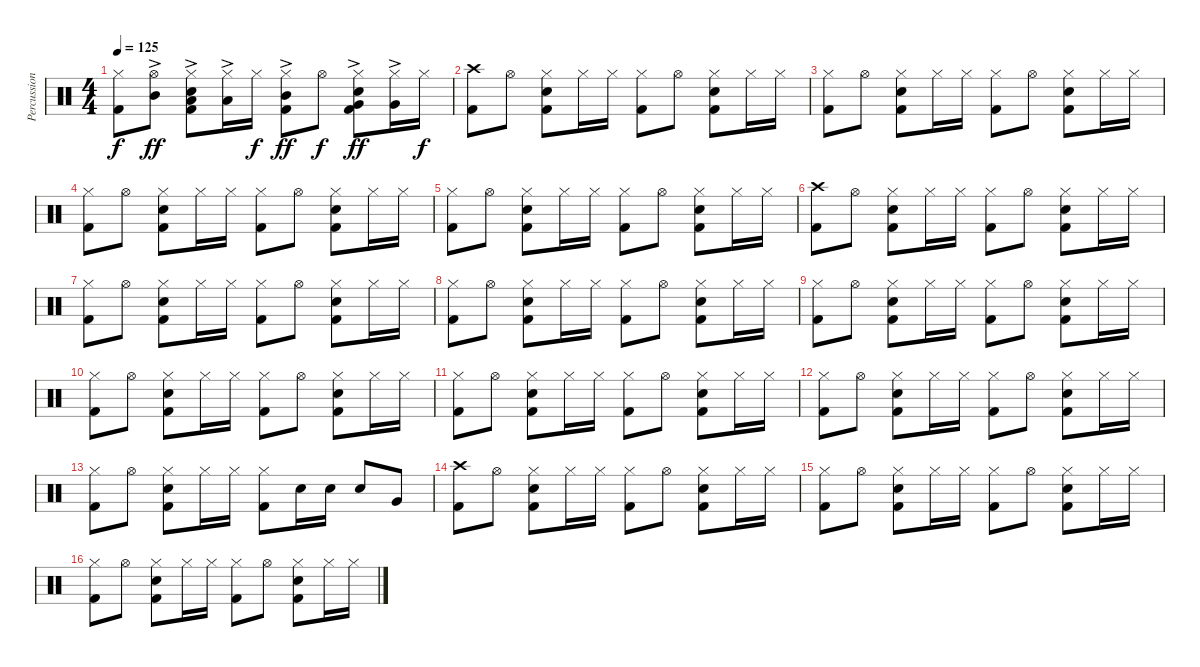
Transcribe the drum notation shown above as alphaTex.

\track ("Percussion" "Percussion") {instrument percussion}
\staff {score}
\articulation defaults
\ts (4 4)
\tempo 125
\clef neutral
\ks c
("Hi-Hat (closed)" "Kick (hit) 2").8{dy f} ("Hi-Hat (open)" "Mid Tom (hit)"{ac}).8{dy ff} ("Hi-Hat (closed)" "Low Tom (hit)"{ac} "Electric Snare (hit)" "Kick (hit) 2").8 ("Hi-Hat (closed)" "Low Tom (hit)"{ac}).16 "Hi-Hat (closed)".16{dy f} ("Hi-Hat (closed)" "Mid Tom (hit)"{ac} "Kick (hit) 2").8{dy ff} "Hi-Hat (open)".8{dy f} ("Hi-Hat (closed)" "Very Low Tom (hit)"{ac} "Electric Snare (hit)" "Kick (hit) 2").8{dy ff} ("Hi-Hat (closed)" "Very Low Tom (hit)"{ac}).16 "Hi-Hat (closed)".16{dy f} |
("Crash high (hit)" "Kick (hit) 2").8 "Hi-Hat (open)".8 ("Hi-Hat (closed)" "Electric Snare (hit)" "Kick (hit) 2").8 "Hi-Hat (closed)".16 "Hi-Hat (closed)".16 ("Hi-Hat (closed)" "Kick (hit) 2").8 "Hi-Hat (open)".8 ("Hi-Hat (closed)" "Electric Snare (hit)" "Kick (hit) 2").8 "Hi-Hat (closed)".16 "Hi-Hat (closed)".16 |
("Hi-Hat (closed)" "Kick (hit) 2").8 "Hi-Hat (open)".8 ("Hi-Hat (closed)" "Electric Snare (hit)" "Kick (hit) 2").8 "Hi-Hat (closed)".16 "Hi-Hat (closed)".16 ("Hi-Hat (closed)" "Kick (hit) 2").8 "Hi-Hat (open)".8 ("Hi-Hat (closed)" "Electric Snare (hit)" "Kick (hit) 2").8 "Hi-Hat (closed)".16 "Hi-Hat (closed)".16 |
("Hi-Hat (closed)" "Kick (hit) 2").8 "Hi-Hat (open)".8 ("Hi-Hat (closed)" "Electric Snare (hit)" "Kick (hit) 2").8 "Hi-Hat (closed)".16 "Hi-Hat (closed)".16 ("Hi-Hat (closed)" "Kick (hit) 2").8 "Hi-Hat (open)".8 ("Hi-Hat (closed)" "Electric Snare (hit)" "Kick (hit) 2").8 "Hi-Hat (closed)".16 "Hi-Hat (closed)".16 |
("Hi-Hat (closed)" "Kick (hit) 2").8 "Hi-Hat (open)".8 ("Hi-Hat (closed)" "Electric Snare (hit)" "Kick (hit) 2").8 "Hi-Hat (closed)".16 "Hi-Hat (closed)".16 ("Hi-Hat (closed)" "Kick (hit) 2").8 "Hi-Hat (open)".8 ("Hi-Hat (closed)" "Electric Snare (hit)" "Kick (hit) 2").8 "Hi-Hat (closed)".16 "Hi-Hat (closed)".16 |
("Crash high (hit)" "Kick (hit) 2").8 "Hi-Hat (open)".8 ("Hi-Hat (closed)" "Electric Snare (hit)" "Kick (hit) 2").8 "Hi-Hat (closed)".16 "Hi-Hat (closed)".16 ("Hi-Hat (closed)" "Kick (hit) 2").8 "Hi-Hat (open)".8 ("Hi-Hat (closed)" "Electric Snare (hit)" "Kick (hit) 2").8 "Hi-Hat (closed)".16 "Hi-Hat (closed)".16 |
("Hi-Hat (closed)" "Kick (hit) 2").8 "Hi-Hat (open)".8 ("Hi-Hat (closed)" "Electric Snare (hit)" "Kick (hit) 2").8 "Hi-Hat (closed)".16 "Hi-Hat (closed)".16 ("Hi-Hat (closed)" "Kick (hit) 2").8 "Hi-Hat (open)".8 ("Hi-Hat (closed)" "Electric Snare (hit)" "Kick (hit) 2").8 "Hi-Hat (closed)".16 "Hi-Hat (closed)".16 |
("Hi-Hat (closed)" "Kick (hit) 2").8 "Hi-Hat (open)".8 ("Hi-Hat (closed)" "Electric Snare (hit)" "Kick (hit) 2").8 "Hi-Hat (closed)".16 "Hi-Hat (closed)".16 ("Hi-Hat (closed)" "Kick (hit) 2").8 "Hi-Hat (open)".8 ("Hi-Hat (closed)" "Electric Snare (hit)" "Kick (hit) 2").8 "Hi-Hat (closed)".16 "Hi-Hat (closed)".16 |
("Hi-Hat (closed)" "Kick (hit) 2").8 "Hi-Hat (open)".8 ("Hi-Hat (closed)" "Electric Snare (hit)" "Kick (hit) 2").8 "Hi-Hat (closed)".16 "Hi-Hat (closed)".16 ("Hi-Hat (closed)" "Kick (hit) 2").8 "Hi-Hat (open)".8 ("Hi-Hat (closed)" "Electric Snare (hit)" "Kick (hit) 2").8 "Hi-Hat (closed)".16 "Hi-Hat (closed)".16 |
("Hi-Hat (closed)" "Kick (hit) 2").8 "Hi-Hat (open)".8 ("Hi-Hat (closed)" "Electric Snare (hit)" "Kick (hit) 2").8 "Hi-Hat (closed)".16 "Hi-Hat (closed)".16 ("Hi-Hat (closed)" "Kick (hit) 2").8 "Hi-Hat (open)".8 ("Hi-Hat (closed)" "Electric Snare (hit)" "Kick (hit) 2").8 "Hi-Hat (closed)".16 "Hi-Hat (closed)".16 |
("Hi-Hat (closed)" "Kick (hit) 2").8 "Hi-Hat (open)".8 ("Hi-Hat (closed)" "Electric Snare (hit)" "Kick (hit) 2").8 "Hi-Hat (closed)".16 "Hi-Hat (closed)".16 ("Hi-Hat (closed)" "Kick (hit) 2").8 "Hi-Hat (open)".8 ("Hi-Hat (closed)" "Electric Snare (hit)" "Kick (hit) 2").8 "Hi-Hat (closed)".16 "Hi-Hat (closed)".16 |
("Hi-Hat (closed)" "Kick (hit) 2").8 "Hi-Hat (open)".8 ("Hi-Hat (closed)" "Electric Snare (hit)" "Kick (hit) 2").8 "Hi-Hat (closed)".16 "Hi-Hat (closed)".16 ("Hi-Hat (closed)" "Kick (hit) 2").8 "Hi-Hat (open)".8 ("Hi-Hat (closed)" "Electric Snare (hit)" "Kick (hit) 2").8 "Hi-Hat (closed)".16 "Hi-Hat (closed)".16 |
("Hi-Hat (closed)" "Kick (hit) 2").8 "Hi-Hat (open)".8 ("Hi-Hat (closed)" "Electric Snare (hit)" "Kick (hit) 2").8 "Hi-Hat (closed)".16 "Hi-Hat (closed)".16 ("Hi-Hat (closed)" "Kick (hit) 2").8 "Electric Snare (hit)".16 "Electric Snare (hit)".16 "Electric Snare (hit)".8 "Very Low Tom (hit)".8 |
("Crash high (hit)" "Kick (hit) 2").8 "Hi-Hat (open)".8 ("Hi-Hat (closed)" "Electric Snare (hit)" "Kick (hit) 2").8 "Hi-Hat (closed)".16 "Hi-Hat (closed)".16 ("Hi-Hat (closed)" "Kick (hit) 2").8 "Hi-Hat (open)".8 ("Hi-Hat (closed)" "Electric Snare (hit)" "Kick (hit) 2").8 "Hi-Hat (closed)".16 "Hi-Hat (closed)".16 |
("Hi-Hat (closed)" "Kick (hit) 2").8 "Hi-Hat (open)".8 ("Hi-Hat (closed)" "Electric Snare (hit)" "Kick (hit) 2").8 "Hi-Hat (closed)".16 "Hi-Hat (closed)".16 ("Hi-Hat (closed)" "Kick (hit) 2").8 "Hi-Hat (open)".8 ("Hi-Hat (closed)" "Electric Snare (hit)" "Kick (hit) 2").8 "Hi-Hat (closed)".16 "Hi-Hat (closed)".16 |
("Hi-Hat (closed)" "Kick (hit) 2").8 "Hi-Hat (open)".8 ("Hi-Hat (closed)" "Electric Snare (hit)" "Kick (hit) 2").8 "Hi-Hat (closed)".16 "Hi-Hat (closed)".16 ("Hi-Hat (closed)" "Kick (hit) 2").8 "Hi-Hat (open)".8 ("Hi-Hat (closed)" "Electric Snare (hit)" "Kick (hit) 2").8 "Hi-Hat (closed)".16 "Hi-Hat (closed)".16
